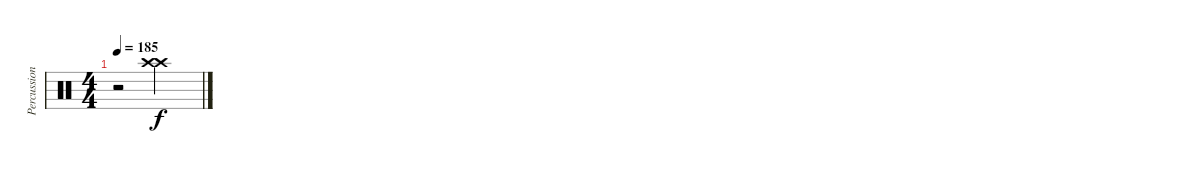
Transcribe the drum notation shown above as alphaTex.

\track ("Percussion" "Percussion") {instrument percussion}
\staff {score}
\articulation defaults
\ts (4 4)
\tempo 185
\clef neutral
\ks c
r.2{dy f} ("Crash high (hit)" "Crash high (hit)").2
